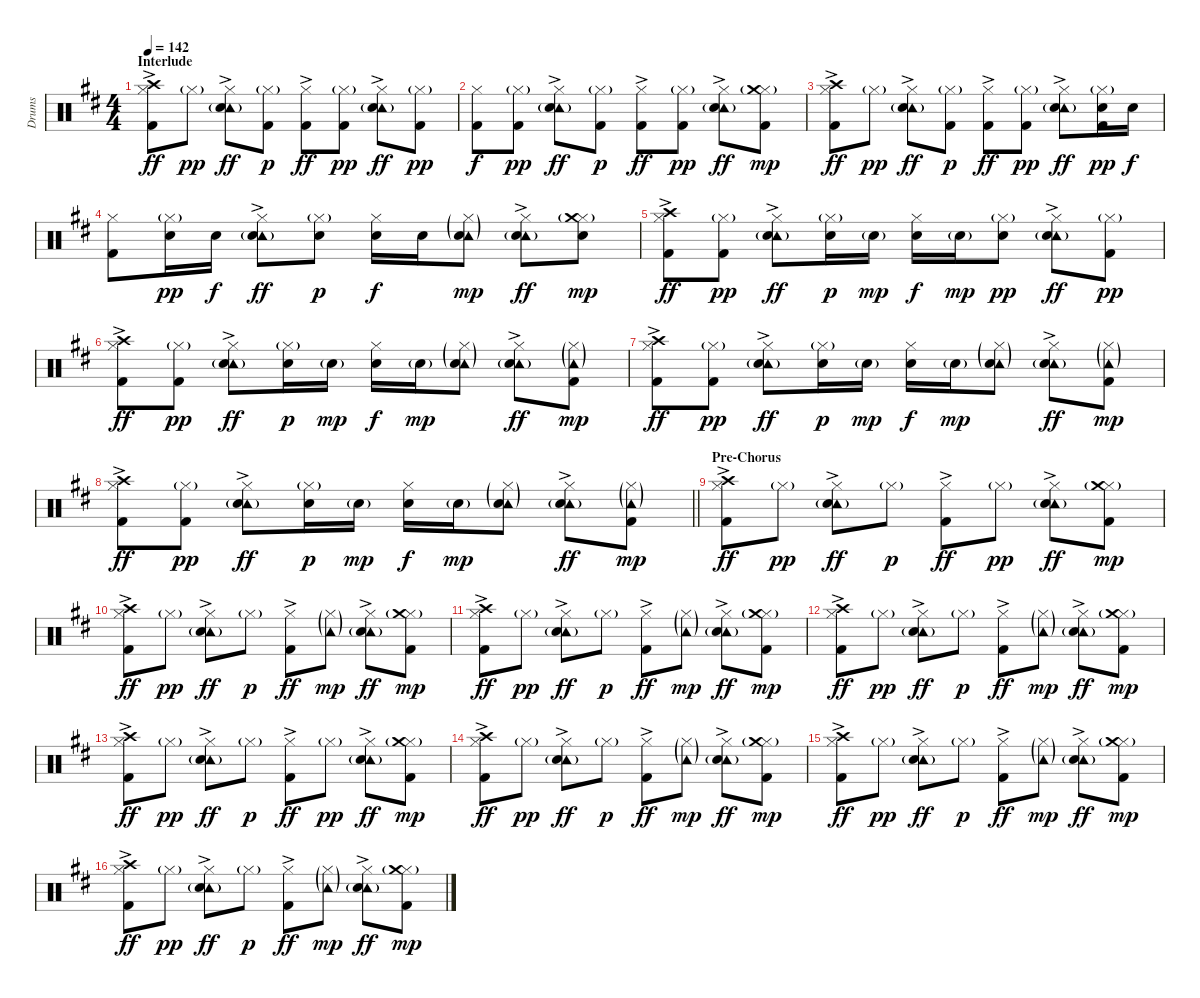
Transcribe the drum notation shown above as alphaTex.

\track ("Drums" "Drums") {instrument percussion}
\staff {score}
\articulation defaults
\ts (4 4)
\section ("" "Interlude")
\tempo 142
\clef neutral
\ks d
("Hi-Hat (closed)" "Crash high (hit)" "Kick (hit) 2"{ac}).8{dy ff} "Hi-Hat (closed)"{g}.8{dy pp} ("Hi-Hat (closed)" "Tambourine (hit)"{g} "Snare (hit) 2"{ac}).8{dy ff} ("Hi-Hat (closed)"{g} "Kick (hit) 2").8{dy p} ("Hi-Hat (closed)" "Kick (hit) 2"{ac}).8{dy ff} ("Hi-Hat (closed)"{g} "Kick (hit) 2").8{dy pp} ("Hi-Hat (closed)" "Tambourine (hit)"{g} "Snare (hit) 2"{ac}).8{dy ff} ("Hi-Hat (closed)"{g} "Kick (hit) 2").8{dy pp} |
("Hi-Hat (closed)" "Kick (hit) 2").8{dy f} ("Hi-Hat (closed)"{g} "Kick (hit) 2").8{dy pp} ("Hi-Hat (closed)" "Tambourine (hit)"{g} "Snare (hit) 2"{ac}).8{dy ff} ("Hi-Hat (closed)"{g} "Kick (hit) 2").8{dy p} ("Hi-Hat (closed)" "Kick (hit) 2"{ac}).8{dy ff} ("Hi-Hat (closed)"{g} "Kick (hit) 2").8{dy pp} ("Hi-Hat (closed)" "Tambourine (hit)"{g} "Snare (hit) 2"{ac}).8{dy ff} ("Hi-Hat (closed)"{g} "Crash medium (hit)"{g} "Kick (hit) 2").8{dy mp} |
("Hi-Hat (closed)" "Crash high (hit)" "Kick (hit) 2"{ac}).8{dy ff} "Hi-Hat (closed)"{g}.8{dy pp} ("Hi-Hat (closed)" "Tambourine (hit)"{g} "Snare (hit) 2"{ac}).8{dy ff} ("Hi-Hat (closed)"{g} "Kick (hit) 2").8{dy p} ("Hi-Hat (closed)" "Kick (hit) 2"{ac}).8{dy ff} ("Hi-Hat (closed)"{g} "Kick (hit) 2").8{dy pp} ("Hi-Hat (closed)" "Tambourine (hit)"{g} "Snare (hit) 2"{ac}).8{dy ff} ("Hi-Hat (closed)"{g} "Snare (hit) 2" "Kick (hit) 2").16{dy pp} "Snare (hit) 2".16{dy f} |
("Hi-Hat (closed)" "Kick (hit) 2").8 ("Hi-Hat (closed)"{g} "Snare (hit) 2").16{dy pp} "Snare (hit) 2".16{dy f} ("Hi-Hat (closed)" "Tambourine (hit)"{g} "Snare (hit) 2"{ac}).8{dy ff} ("Hi-Hat (closed)"{g} "Snare (hit) 2").8{dy p} ("Hi-Hat (closed)" "Snare (hit) 2").16{dy f} "Snare (hit) 2".16 ("Hi-Hat (closed)"{g} "Tambourine (hit)"{g} "Snare (hit) 2").8{dy mp} ("Hi-Hat (closed)" "Tambourine (hit)"{g} "Snare (hit) 2"{ac}).8{dy ff} ("Hi-Hat (closed)"{g} "Crash medium (hit)"{g} "Snare (hit) 2").8{dy mp} |
("Hi-Hat (closed)" "Crash high (hit)" "Kick (hit) 2"{ac}).8{dy ff} ("Hi-Hat (closed)"{g} "Kick (hit) 2").8{dy pp} ("Hi-Hat (closed)" "Tambourine (hit)"{g} "Snare (hit) 2"{ac}).8{dy ff} ("Hi-Hat (closed)"{g} "Snare (hit) 2").16{dy p} "Snare (hit) 2"{g}.16{dy mp} ("Hi-Hat (closed)" "Snare (hit) 2").16{dy f} "Snare (hit) 2"{g}.16{dy mp} ("Hi-Hat (closed)"{g} "Snare (hit) 2").8{dy pp} ("Hi-Hat (closed)" "Tambourine (hit)"{g} "Snare (hit) 2"{ac}).8{dy ff} ("Hi-Hat (closed)"{g} "Kick (hit) 2").8{dy pp} |
("Hi-Hat (closed)" "Crash high (hit)" "Kick (hit) 2"{ac}).8{dy ff} ("Hi-Hat (closed)"{g} "Kick (hit) 2").8{dy pp} ("Hi-Hat (closed)" "Tambourine (hit)"{g} "Snare (hit) 2"{ac}).8{dy ff} ("Hi-Hat (closed)"{g} "Snare (hit) 2").16{dy p} "Snare (hit) 2"{g}.16{dy mp} ("Hi-Hat (closed)" "Snare (hit) 2").16{dy f} "Snare (hit) 2"{g}.16{dy mp} ("Hi-Hat (closed)"{g} "Tambourine (hit)"{g} "Snare (hit) 2").8 ("Hi-Hat (closed)" "Tambourine (hit)"{g} "Snare (hit) 2"{ac}).8{dy ff} ("Hi-Hat (closed)"{g} "Tambourine (hit)"{g} "Kick (hit) 2").8{dy mp} |
("Hi-Hat (closed)" "Crash high (hit)" "Kick (hit) 2"{ac}).8{dy ff} ("Hi-Hat (closed)"{g} "Kick (hit) 2").8{dy pp} ("Hi-Hat (closed)" "Tambourine (hit)"{g} "Snare (hit) 2"{ac}).8{dy ff} ("Hi-Hat (closed)"{g} "Snare (hit) 2").16{dy p} "Snare (hit) 2"{g}.16{dy mp} ("Hi-Hat (closed)" "Snare (hit) 2").16{dy f} "Snare (hit) 2"{g}.16{dy mp} ("Hi-Hat (closed)"{g} "Tambourine (hit)"{g} "Snare (hit) 2").8 ("Hi-Hat (closed)" "Tambourine (hit)"{g} "Snare (hit) 2"{ac}).8{dy ff} ("Hi-Hat (closed)"{g} "Tambourine (hit)"{g} "Kick (hit) 2").8{dy mp} |
\barLineRight lightlight
("Hi-Hat (closed)" "Crash high (hit)" "Kick (hit) 2"{ac}).8{dy ff} ("Hi-Hat (closed)"{g} "Kick (hit) 2").8{dy pp} ("Hi-Hat (closed)" "Tambourine (hit)"{g} "Snare (hit) 2"{ac}).8{dy ff} ("Hi-Hat (closed)"{g} "Snare (hit) 2").16{dy p} "Snare (hit) 2"{g}.16{dy mp} ("Hi-Hat (closed)" "Snare (hit) 2").16{dy f} "Snare (hit) 2"{g}.16{dy mp} ("Hi-Hat (closed)"{g} "Tambourine (hit)"{g} "Snare (hit) 2").8 ("Hi-Hat (closed)" "Tambourine (hit)"{g} "Snare (hit) 2"{ac}).8{dy ff} ("Hi-Hat (closed)"{g} "Tambourine (hit)"{g} "Kick (hit) 2").8{dy mp} |
\section ("" "Pre-Chorus")
("Hi-Hat (closed)" "Crash high (hit)" "Kick (hit) 2"{ac}).8{dy ff} "Hi-Hat (closed)"{g}.8{dy pp} ("Hi-Hat (closed)" "Tambourine (hit)"{g} "Snare (hit) 2"{ac}).8{dy ff} "Hi-Hat (closed)"{g}.8{dy p} ("Hi-Hat (closed)" "Kick (hit) 2"{ac}).8{dy ff} "Hi-Hat (closed)"{g}.8{dy pp} ("Hi-Hat (closed)" "Tambourine (hit)"{g} "Snare (hit) 2"{ac}).8{dy ff} ("Hi-Hat (closed)"{g} "Crash medium (hit)"{g} "Kick (hit) 2").8{dy mp} |
("Hi-Hat (closed)" "Crash high (hit)" "Kick (hit) 2"{ac}).8{dy ff} "Hi-Hat (closed)"{g}.8{dy pp} ("Hi-Hat (closed)" "Tambourine (hit)"{g} "Snare (hit) 2"{ac}).8{dy ff} "Hi-Hat (closed)"{g}.8{dy p} ("Hi-Hat (closed)" "Kick (hit) 2"{ac}).8{dy ff} ("Hi-Hat (closed)"{g} "Tambourine (hit)"{g}).8{dy mp} ("Hi-Hat (closed)" "Tambourine (hit)"{g} "Snare (hit) 2"{ac}).8{dy ff} ("Hi-Hat (closed)"{g} "Crash medium (hit)"{g} "Kick (hit) 2").8{dy mp} |
("Hi-Hat (closed)" "Crash high (hit)" "Kick (hit) 2"{ac}).8{dy ff} "Hi-Hat (closed)"{g}.8{dy pp} ("Hi-Hat (closed)" "Tambourine (hit)"{g} "Snare (hit) 2"{ac}).8{dy ff} "Hi-Hat (closed)"{g}.8{dy p} ("Hi-Hat (closed)" "Kick (hit) 2"{ac}).8{dy ff} ("Hi-Hat (closed)"{g} "Tambourine (hit)"{g}).8{dy mp} ("Hi-Hat (closed)" "Tambourine (hit)"{g} "Snare (hit) 2"{ac}).8{dy ff} ("Hi-Hat (closed)"{g} "Crash medium (hit)"{g} "Kick (hit) 2").8{dy mp} |
("Hi-Hat (closed)" "Crash high (hit)" "Kick (hit) 2"{ac}).8{dy ff} "Hi-Hat (closed)"{g}.8{dy pp} ("Hi-Hat (closed)" "Tambourine (hit)"{g} "Snare (hit) 2"{ac}).8{dy ff} "Hi-Hat (closed)"{g}.8{dy p} ("Hi-Hat (closed)" "Kick (hit) 2"{ac}).8{dy ff} ("Hi-Hat (closed)"{g} "Tambourine (hit)"{g}).8{dy mp} ("Hi-Hat (closed)" "Tambourine (hit)"{g} "Snare (hit) 2"{ac}).8{dy ff} ("Hi-Hat (closed)"{g} "Crash medium (hit)"{g} "Kick (hit) 2").8{dy mp} |
("Hi-Hat (closed)" "Crash high (hit)" "Kick (hit) 2"{ac}).8{dy ff} "Hi-Hat (closed)"{g}.8{dy pp} ("Hi-Hat (closed)" "Tambourine (hit)"{g} "Snare (hit) 2"{ac}).8{dy ff} "Hi-Hat (closed)"{g}.8{dy p} ("Hi-Hat (closed)" "Kick (hit) 2"{ac}).8{dy ff} "Hi-Hat (closed)"{g}.8{dy pp} ("Hi-Hat (closed)" "Tambourine (hit)"{g} "Snare (hit) 2"{ac}).8{dy ff} ("Hi-Hat (closed)"{g} "Crash medium (hit)"{g} "Kick (hit) 2").8{dy mp} |
("Hi-Hat (closed)" "Crash high (hit)" "Kick (hit) 2"{ac}).8{dy ff} "Hi-Hat (closed)"{g}.8{dy pp} ("Hi-Hat (closed)" "Tambourine (hit)"{g} "Snare (hit) 2"{ac}).8{dy ff} "Hi-Hat (closed)"{g}.8{dy p} ("Hi-Hat (closed)" "Kick (hit) 2"{ac}).8{dy ff} ("Hi-Hat (closed)"{g} "Tambourine (hit)"{g}).8{dy mp} ("Hi-Hat (closed)" "Tambourine (hit)"{g} "Snare (hit) 2"{ac}).8{dy ff} ("Hi-Hat (closed)"{g} "Crash medium (hit)"{g} "Kick (hit) 2").8{dy mp} |
("Hi-Hat (closed)" "Crash high (hit)" "Kick (hit) 2"{ac}).8{dy ff} "Hi-Hat (closed)"{g}.8{dy pp} ("Hi-Hat (closed)" "Tambourine (hit)"{g} "Snare (hit) 2"{ac}).8{dy ff} "Hi-Hat (closed)"{g}.8{dy p} ("Hi-Hat (closed)" "Kick (hit) 2"{ac}).8{dy ff} ("Hi-Hat (closed)"{g} "Tambourine (hit)"{g}).8{dy mp} ("Hi-Hat (closed)" "Tambourine (hit)"{g} "Snare (hit) 2"{ac}).8{dy ff} ("Hi-Hat (closed)"{g} "Crash medium (hit)"{g} "Kick (hit) 2").8{dy mp} |
("Hi-Hat (closed)" "Crash high (hit)" "Kick (hit) 2"{ac}).8{dy ff} "Hi-Hat (closed)"{g}.8{dy pp} ("Hi-Hat (closed)" "Tambourine (hit)"{g} "Snare (hit) 2"{ac}).8{dy ff} "Hi-Hat (closed)"{g}.8{dy p} ("Hi-Hat (closed)" "Kick (hit) 2"{ac}).8{dy ff} ("Hi-Hat (closed)"{g} "Tambourine (hit)"{g}).8{dy mp} ("Hi-Hat (closed)" "Tambourine (hit)"{g} "Snare (hit) 2"{ac}).8{dy ff} ("Hi-Hat (closed)"{g} "Crash medium (hit)"{g} "Kick (hit) 2").8{dy mp}
